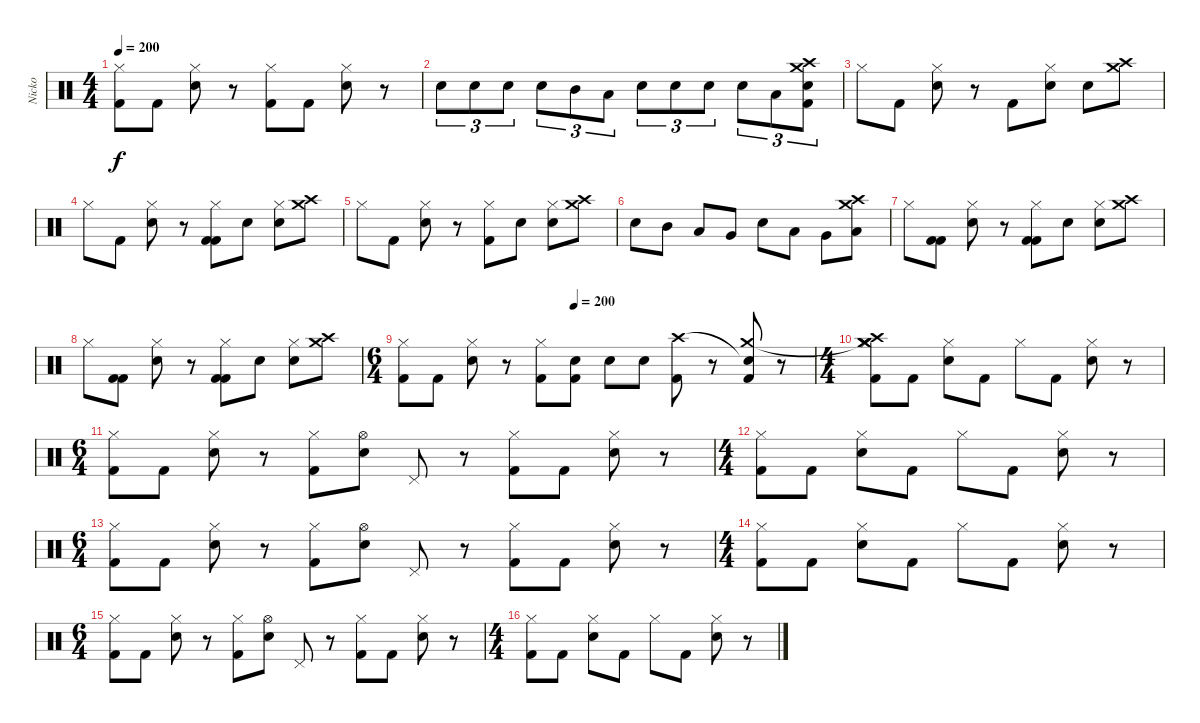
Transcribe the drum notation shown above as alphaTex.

\track ("Nicko" "Nicko") {instrument percussion}
\staff {score}
\articulation defaults
\ts (4 4)
\tempo 200
\clef neutral
\ks c
("Hi-Hat (closed)" "Kick (hit) 2").8{dy f} "Kick (hit) 2".8 ("Hi-Hat (closed)" "Electric Snare (hit)").8 r.8 ("Hi-Hat (closed)" "Kick (hit) 2").8 "Kick (hit) 2".8 ("Hi-Hat (closed)" "Electric Snare (hit)").8 r.8 |
"Electric Snare (hit)".8{tu (3 2)} "Electric Snare (hit)".8{tu (3 2)} "Electric Snare (hit)".8{tu (3 2)} "Electric Snare (hit)".8{tu (3 2)} "Mid Tom (hit)".8{tu (3 2)} "Low Tom (hit)".8{tu (3 2)} "Electric Snare (hit)".8{tu (3 2)} "Electric Snare (hit)".8{tu (3 2)} "Electric Snare (hit)".8{tu (3 2)} "Electric Snare (hit)".8{tu (3 2)} "Low Tom (hit)".8{tu (3 2)} ("Crash high (hit)" "Crash medium (hit)" "Electric Snare (hit)" "Kick (hit) 2").8{tu (3 2)} |
"Hi-Hat (closed)".8 "Kick (hit) 2".8 ("Hi-Hat (closed)" "Electric Snare (hit)").8 r.8 "Kick (hit) 2".8 ("Hi-Hat (closed)" "Electric Snare (hit)").8 "Electric Snare (hit)".8 ("Crash medium (hit)" "Crash high (hit)").8 |
"Hi-Hat (closed)".8 "Kick (hit) 2".8 ("Hi-Hat (closed)" "Electric Snare (hit)").8 r.8 ("Hi-Hat (closed)" "Kick (hit) 2" "Kick (hit) 2").8 "Electric Snare (hit)".8 ("Hi-Hat (closed)" "Electric Snare (hit)").8 ("Crash medium (hit)" "Crash high (hit)").8 |
"Hi-Hat (closed)".8 "Kick (hit) 2".8 ("Hi-Hat (closed)" "Electric Snare (hit)").8 r.8 ("Hi-Hat (closed)" "Kick (hit) 2").8 "Electric Snare (hit)".8 ("Hi-Hat (closed)" "Electric Snare (hit)").8 ("Crash medium (hit)" "Crash high (hit)").8 |
"Electric Snare (hit)".8 "Mid Tom (hit)".8 "Low Tom (hit)".8 "Very Low Tom (hit)".8 "Electric Snare (hit)".8 "Low Tom (hit)".8 "Very Low Tom (hit)".8 ("Crash high (hit)" "Crash medium (hit)" "Low Floor Tom (hit)").8 |
"Hi-Hat (closed)".8 ("Kick (hit) 2" "Kick (hit) 2").8 ("Hi-Hat (closed)" "Electric Snare (hit)").8 r.8 ("Hi-Hat (closed)" "Kick (hit) 2" "Kick (hit) 2").8 "Electric Snare (hit)".8 ("Hi-Hat (closed)" "Electric Snare (hit)").8 ("Crash medium (hit)" "Crash high (hit)").8 |
"Hi-Hat (closed)".8 ("Kick (hit) 2" "Kick (hit) 2").8 ("Hi-Hat (closed)" "Electric Snare (hit)").8 r.8 ("Hi-Hat (closed)" "Kick (hit) 2" "Kick (hit) 2").8 "Electric Snare (hit)".8 ("Hi-Hat (closed)" "Electric Snare (hit)").8 ("Crash medium (hit)" "Crash high (hit)").8 |
\ts (6 4)
\tempo (200 0.4166666666666667)
("Hi-Hat (closed)" "Kick (hit) 2").8 "Kick (hit) 2".8 ("Hi-Hat (closed)" "Electric Snare (hit)").8 r.8 ("Hi-Hat (closed)" "Kick (hit) 2").8 ("Electric Snare (hit)" "Kick (hit) 2").8 "Electric Snare (hit)".8 "Electric Snare (hit)".8 ("Crash high (hit)" "Kick (hit) 2").8 r.8 ("Snare (hit)"{t} "Crash medium (hit)" "Kick (hit) 2").8 r.8 |
\ts (4 4)
("Crash high (hit)" "Crash medium (hit)"{t} "Hi-Hat (closed)" "Crash medium (hit)" "Kick (hit) 2").8 "Kick (hit) 2".8 ("Hi-Hat (closed)" "Electric Snare (hit)").8 "Kick (hit) 2".8 "Hi-Hat (closed)".8 "Kick (hit) 2".8 ("Hi-Hat (closed)" "Electric Snare (hit)").8 r.8 |
\ts (6 4)
("Hi-Hat (closed)" "Kick (hit) 2").8 "Kick (hit) 2".8 ("Hi-Hat (closed)" "Electric Snare (hit)").8 r.8 ("Hi-Hat (closed)" "Kick (hit) 2").8 ("Hi-Hat (open)" "Electric Snare (hit)").8 "Pedal Hi-Hat (hit)".8 r.8 ("Hi-Hat (closed)" "Kick (hit) 2").8 "Kick (hit) 2".8 ("Hi-Hat (closed)" "Electric Snare (hit)").8 r.8 |
\ts (4 4)
("Hi-Hat (closed)" "Kick (hit) 2").8 "Kick (hit) 2".8 ("Hi-Hat (closed)" "Electric Snare (hit)").8 "Kick (hit) 2".8 "Hi-Hat (closed)".8 "Kick (hit) 2".8 ("Hi-Hat (closed)" "Electric Snare (hit)").8 r.8 |
\ts (6 4)
("Hi-Hat (closed)" "Kick (hit) 2").8 "Kick (hit) 2".8 ("Hi-Hat (closed)" "Electric Snare (hit)").8 r.8 ("Hi-Hat (closed)" "Kick (hit) 2").8 ("Hi-Hat (open)" "Electric Snare (hit)").8 "Pedal Hi-Hat (hit)".8 r.8 ("Hi-Hat (closed)" "Kick (hit) 2").8 "Kick (hit) 2".8 ("Hi-Hat (closed)" "Electric Snare (hit)").8 r.8 |
\ts (4 4)
("Hi-Hat (closed)" "Kick (hit) 2").8 "Kick (hit) 2".8 ("Hi-Hat (closed)" "Electric Snare (hit)").8 "Kick (hit) 2".8 "Hi-Hat (closed)".8 "Kick (hit) 2".8 ("Hi-Hat (closed)" "Electric Snare (hit)").8 r.8 |
\ts (6 4)
("Hi-Hat (closed)" "Kick (hit) 2").8 "Kick (hit) 2".8 ("Hi-Hat (closed)" "Electric Snare (hit)").8 r.8 ("Hi-Hat (closed)" "Kick (hit) 2").8 ("Hi-Hat (open)" "Electric Snare (hit)").8 "Pedal Hi-Hat (hit)".8 r.8 ("Hi-Hat (closed)" "Kick (hit) 2").8 "Kick (hit) 2".8 ("Hi-Hat (closed)" "Electric Snare (hit)").8 r.8 |
\ts (4 4)
("Hi-Hat (closed)" "Kick (hit) 2").8 "Kick (hit) 2".8 ("Hi-Hat (closed)" "Electric Snare (hit)").8 "Kick (hit) 2".8 "Hi-Hat (closed)".8 "Kick (hit) 2".8 ("Hi-Hat (closed)" "Electric Snare (hit)").8 r.8
